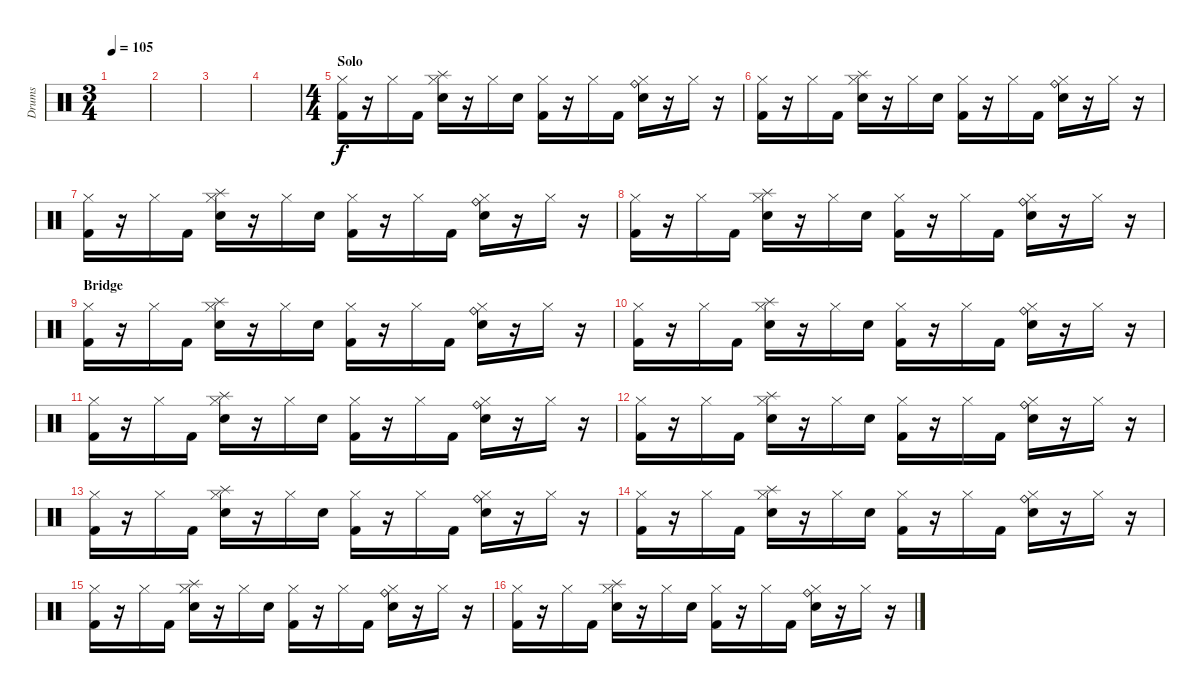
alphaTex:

\track ("Drums" "Drums") {instrument percussion}
\staff {score}
\articulation defaults
\ts (3 4)
\tempo 105
\clef neutral
\ks c
|
|
|
|
\ts (4 4)
\section ("" "Solo")
("Hi-Hat (closed)" "Kick (hit) 2").16 r.16 "Hi-Hat (closed)".16 "Kick (hit) 2".16 ("Hi-Hat (closed)" "Electric Snare (hit)" "Splash (hit)").16 r.16 "Hi-Hat (closed)".16 "Snare (hit) 2".16 ("Hi-Hat (closed)" "Kick (hit) 2").16 r.16 "Hi-Hat (closed)".16 "Kick (hit) 2".16 ("Hi-Hat (closed)" "Electric Snare (hit)" "Ride (bell)").16 r.16 "Hi-Hat (closed)".16 r.16 |
("Hi-Hat (closed)" "Kick (hit) 2").16 r.16 "Hi-Hat (closed)".16 "Kick (hit) 2".16 ("Hi-Hat (closed)" "Electric Snare (hit)" "Splash (hit)").16 r.16 "Hi-Hat (closed)".16 "Snare (hit) 2".16 ("Hi-Hat (closed)" "Kick (hit) 2").16 r.16 "Hi-Hat (closed)".16 "Kick (hit) 2".16 ("Hi-Hat (closed)" "Electric Snare (hit)" "Ride (bell)").16 r.16 "Hi-Hat (closed)".16 r.16 |
("Hi-Hat (closed)" "Kick (hit) 2").16 r.16 "Hi-Hat (closed)".16 "Kick (hit) 2".16 ("Hi-Hat (closed)" "Electric Snare (hit)" "Splash (hit)").16 r.16 "Hi-Hat (closed)".16 "Snare (hit) 2".16 ("Hi-Hat (closed)" "Kick (hit) 2").16 r.16 "Hi-Hat (closed)".16 "Kick (hit) 2".16 ("Hi-Hat (closed)" "Electric Snare (hit)" "Ride (bell)").16 r.16 "Hi-Hat (closed)".16 r.16 |
("Hi-Hat (closed)" "Kick (hit) 2").16 r.16 "Hi-Hat (closed)".16 "Kick (hit) 2".16 ("Hi-Hat (closed)" "Electric Snare (hit)" "Splash (hit)").16 r.16 "Hi-Hat (closed)".16 "Snare (hit) 2".16 ("Hi-Hat (closed)" "Kick (hit) 2").16 r.16 "Hi-Hat (closed)".16 "Kick (hit) 2".16 ("Hi-Hat (closed)" "Electric Snare (hit)" "Ride (bell)").16 r.16 "Hi-Hat (closed)".16 r.16 |
\section ("" "Bridge")
("Hi-Hat (closed)" "Kick (hit) 2").16 r.16 "Hi-Hat (closed)".16 "Kick (hit) 2".16 ("Hi-Hat (closed)" "Electric Snare (hit)" "Splash (hit)").16 r.16 "Hi-Hat (closed)".16 "Snare (hit) 2".16 ("Hi-Hat (closed)" "Kick (hit) 2").16 r.16 "Hi-Hat (closed)".16 "Kick (hit) 2".16 ("Hi-Hat (closed)" "Electric Snare (hit)" "Ride (bell)").16 r.16 "Hi-Hat (closed)".16 r.16 |
("Hi-Hat (closed)" "Kick (hit) 2").16 r.16 "Hi-Hat (closed)".16 "Kick (hit) 2".16 ("Hi-Hat (closed)" "Electric Snare (hit)" "Splash (hit)").16 r.16 "Hi-Hat (closed)".16 "Snare (hit) 2".16 ("Hi-Hat (closed)" "Kick (hit) 2").16 r.16 "Hi-Hat (closed)".16 "Kick (hit) 2".16 ("Hi-Hat (closed)" "Electric Snare (hit)" "Ride (bell)").16 r.16 "Hi-Hat (closed)".16 r.16 |
("Hi-Hat (closed)" "Kick (hit) 2").16 r.16 "Hi-Hat (closed)".16 "Kick (hit) 2".16 ("Hi-Hat (closed)" "Electric Snare (hit)" "Splash (hit)").16 r.16 "Hi-Hat (closed)".16 "Snare (hit) 2".16 ("Hi-Hat (closed)" "Kick (hit) 2").16 r.16 "Hi-Hat (closed)".16 "Kick (hit) 2".16 ("Hi-Hat (closed)" "Electric Snare (hit)" "Ride (bell)").16 r.16 "Hi-Hat (closed)".16 r.16 |
("Hi-Hat (closed)" "Kick (hit) 2").16 r.16 "Hi-Hat (closed)".16 "Kick (hit) 2".16 ("Hi-Hat (closed)" "Electric Snare (hit)" "Splash (hit)").16 r.16 "Hi-Hat (closed)".16 "Snare (hit) 2".16 ("Hi-Hat (closed)" "Kick (hit) 2").16 r.16 "Hi-Hat (closed)".16 "Kick (hit) 2".16 ("Hi-Hat (closed)" "Electric Snare (hit)" "Ride (bell)").16 r.16 "Hi-Hat (closed)".16 r.16 |
("Hi-Hat (closed)" "Kick (hit) 2").16 r.16 "Hi-Hat (closed)".16 "Kick (hit) 2".16 ("Hi-Hat (closed)" "Electric Snare (hit)" "Splash (hit)").16 r.16 "Hi-Hat (closed)".16 "Snare (hit) 2".16 ("Hi-Hat (closed)" "Kick (hit) 2").16 r.16 "Hi-Hat (closed)".16 "Kick (hit) 2".16 ("Hi-Hat (closed)" "Electric Snare (hit)" "Ride (bell)").16 r.16 "Hi-Hat (closed)".16 r.16 |
("Hi-Hat (closed)" "Kick (hit) 2").16 r.16 "Hi-Hat (closed)".16 "Kick (hit) 2".16 ("Hi-Hat (closed)" "Electric Snare (hit)" "Splash (hit)").16 r.16 "Hi-Hat (closed)".16 "Snare (hit) 2".16 ("Hi-Hat (closed)" "Kick (hit) 2").16 r.16 "Hi-Hat (closed)".16 "Kick (hit) 2".16 ("Hi-Hat (closed)" "Electric Snare (hit)" "Ride (bell)").16 r.16 "Hi-Hat (closed)".16 r.16 |
("Hi-Hat (closed)" "Kick (hit) 2").16 r.16 "Hi-Hat (closed)".16 "Kick (hit) 2".16 ("Hi-Hat (closed)" "Electric Snare (hit)" "Splash (hit)").16 r.16 "Hi-Hat (closed)".16 "Snare (hit) 2".16 ("Hi-Hat (closed)" "Kick (hit) 2").16 r.16 "Hi-Hat (closed)".16 "Kick (hit) 2".16 ("Hi-Hat (closed)" "Electric Snare (hit)" "Ride (bell)").16 r.16 "Hi-Hat (closed)".16 r.16 |
("Hi-Hat (closed)" "Kick (hit) 2").16 r.16 "Hi-Hat (closed)".16 "Kick (hit) 2".16 ("Hi-Hat (closed)" "Electric Snare (hit)" "Splash (hit)").16 r.16 "Hi-Hat (closed)".16 "Snare (hit) 2".16 ("Hi-Hat (closed)" "Kick (hit) 2").16 r.16 "Hi-Hat (closed)".16 "Kick (hit) 2".16 ("Hi-Hat (closed)" "Electric Snare (hit)" "Ride (bell)").16 r.16 "Hi-Hat (closed)".16 r.16
